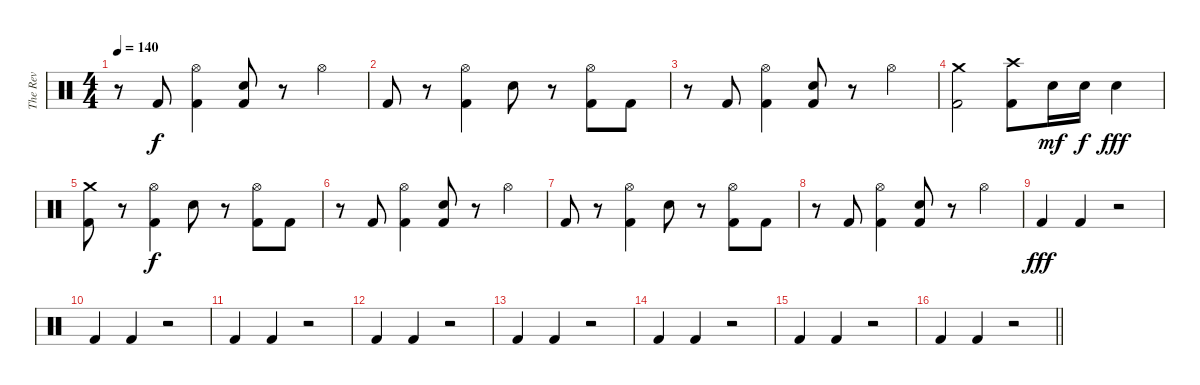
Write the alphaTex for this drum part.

\track ("The Rev" "The Rev") {instrument percussion}
\staff {score}
\articulation defaults
\ts (4 4)
\tempo 140
\clef neutral
\ks c
r.8{dy f} "Kick (hit) 2".8 ("Hi-Hat (open)" "Kick (hit) 2").4 ("Snare (hit) 2" "Kick (hit) 2").8 r.8 "Hi-Hat (open)".4 |
"Kick (hit) 2".8 r.8 ("Hi-Hat (open)" "Kick (hit) 2").4 "Snare (hit) 2".8 r.8 ("Hi-Hat (open)" "Kick (hit) 2").8 "Kick (hit) 2".8 |
r.8 "Kick (hit) 2".8 ("Hi-Hat (open)" "Kick (hit) 2").4 ("Snare (hit) 2" "Kick (hit) 2").8 r.8 "Hi-Hat (open)".4 |
("Crash medium (hit)" "Kick (hit) 2").2 ("Crash high (hit)" "Kick (hit) 2").8 "Snare (hit) 2".16{dy mf} "Snare (hit) 2".16{dy f} "Snare (hit) 2".4{dy fff} |
("Crash medium (hit)" "Kick (hit) 2").8 r.8 ("Hi-Hat (open)" "Kick (hit) 2").4{dy f} "Snare (hit) 2".8 r.8 ("Hi-Hat (open)" "Kick (hit) 2").8 "Kick (hit) 2".8 |
r.8 "Kick (hit) 2".8 ("Hi-Hat (open)" "Kick (hit) 2").4 ("Snare (hit) 2" "Kick (hit) 2").8 r.8 "Hi-Hat (open)".4 |
"Kick (hit) 2".8 r.8 ("Hi-Hat (open)" "Kick (hit) 2").4 "Snare (hit) 2".8 r.8 ("Hi-Hat (open)" "Kick (hit) 2").8 "Kick (hit) 2".8 |
r.8 "Kick (hit) 2".8 ("Hi-Hat (open)" "Kick (hit) 2").4 ("Snare (hit) 2" "Kick (hit) 2").8 r.8 "Hi-Hat (open)".4 |
"Kick (hit) 2".4{dy fff} "Kick (hit) 2".4 r.2 |
"Kick (hit) 2".4 "Kick (hit) 2".4 r.2 |
"Kick (hit) 2".4 "Kick (hit) 2".4 r.2 |
"Kick (hit) 2".4 "Kick (hit) 2".4 r.2 |
"Kick (hit) 2".4 "Kick (hit) 2".4 r.2 |
"Kick (hit) 2".4 "Kick (hit) 2".4 r.2 |
"Kick (hit) 2".4 "Kick (hit) 2".4 r.2 |
\barLineRight lightlight "Kick (hit) 2".4 "Kick (hit) 2".4
r.2
